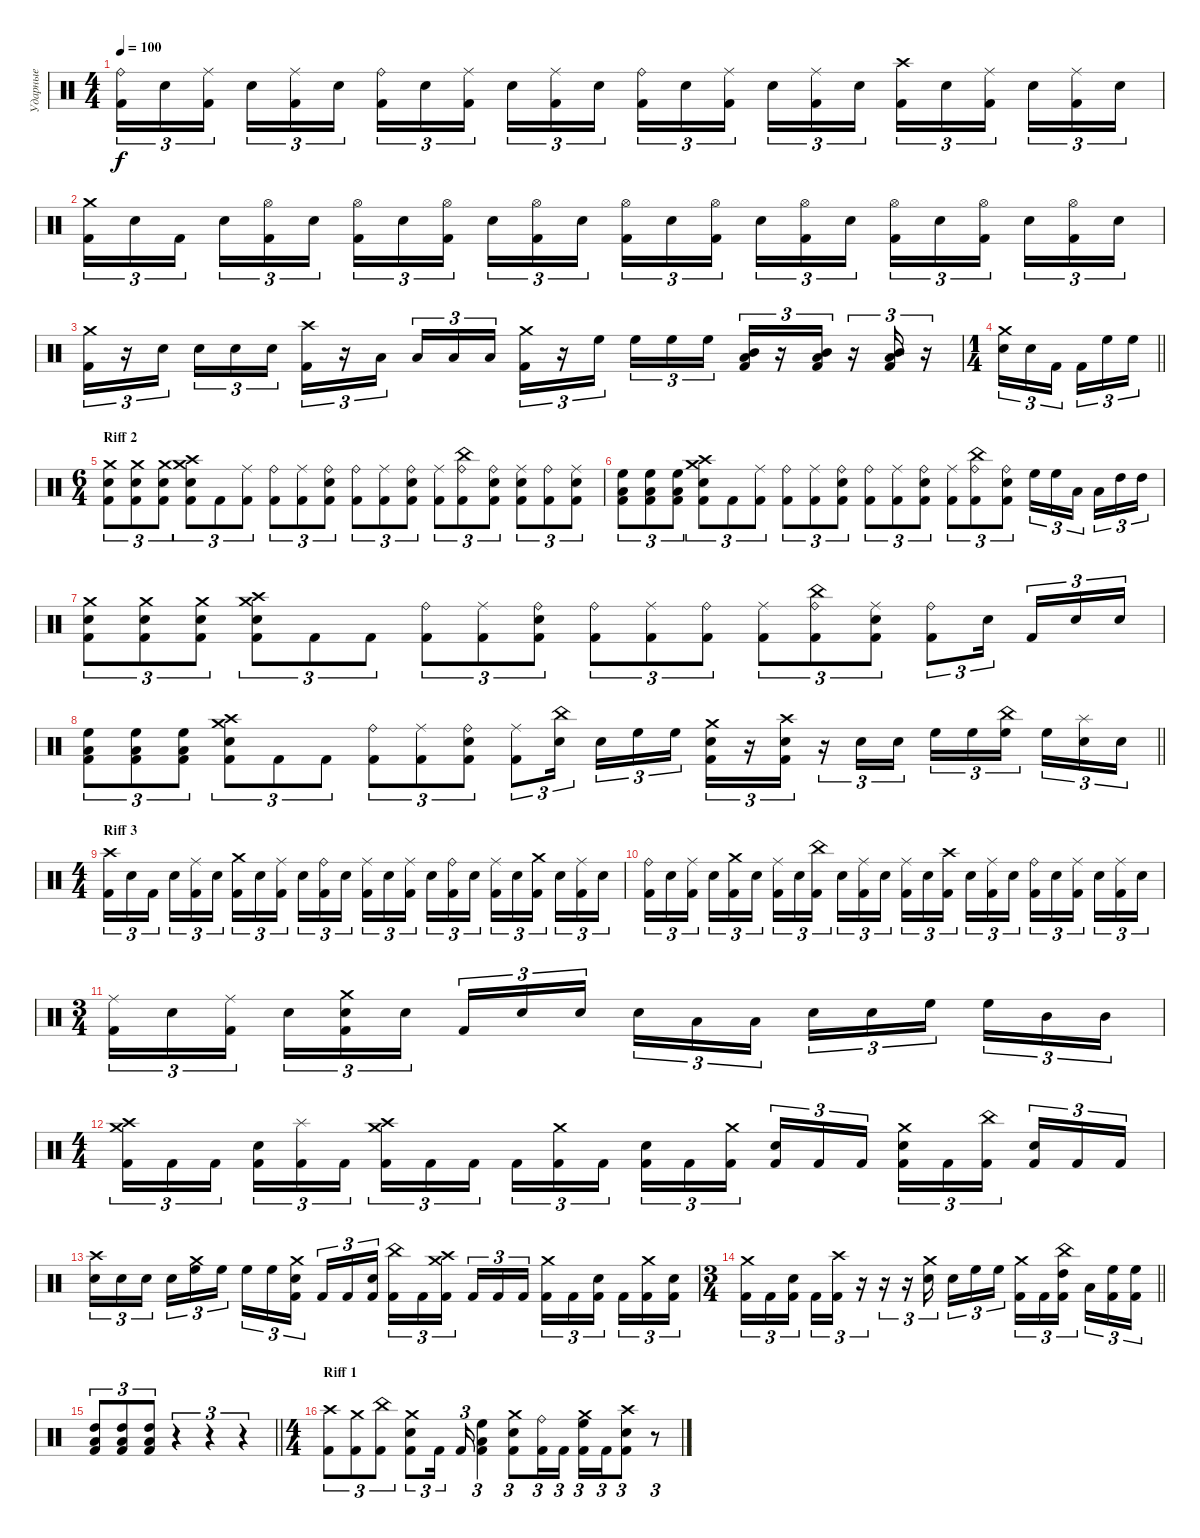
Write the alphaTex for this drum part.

\track ("Ударные" "Ударные") {instrument percussion}
\staff {score}
\articulation defaults
\ts (4 4)
\tempo 100
\clef neutral
\ks c
("Ride (bell)" "Kick (hit) 2").16{tu (3 2) dy f} "Electric Snare (hit)".16{tu (3 2)} ("Ride (middle)" "Kick (hit) 2").16{tu (3 2) beam splitsecondary} "Electric Snare (hit)".16{tu (3 2)} ("Ride (middle)" "Kick (hit) 2").16{tu (3 2)} "Electric Snare (hit)".16{tu (3 2)} ("Ride (bell)" "Kick (hit) 2").16{tu (3 2)} "Electric Snare (hit)".16{tu (3 2)} ("Ride (middle)" "Kick (hit) 2").16{tu (3 2) beam splitsecondary} "Electric Snare (hit)".16{tu (3 2)} ("Ride (middle)" "Kick (hit) 2").16{tu (3 2)} "Electric Snare (hit)".16{tu (3 2)} ("Ride (bell)" "Kick (hit) 2").16{tu (3 2)} "Electric Snare (hit)".16{tu (3 2)} ("Ride (middle)" "Kick (hit) 2").16{tu (3 2) beam splitsecondary} "Electric Snare (hit)".16{tu (3 2)} ("Ride (middle)" "Kick (hit) 2").16{tu (3 2)} "Electric Snare (hit)".16{tu (3 2)} ("Crash high (hit)" "Kick (hit) 2").16{tu (3 2)} "Electric Snare (hit)".16{tu (3 2)} ("Ride (middle)" "Kick (hit) 2").16{tu (3 2) beam splitsecondary} "Electric Snare (hit)".16{tu (3 2)} ("Ride (middle)" "Kick (hit) 2").16{tu (3 2)} "Electric Snare (hit)".16{tu (3 2)} |
("Crash medium (hit)" "Kick (hit) 2").16{tu (3 2)} "Electric Snare (hit)".16{tu (3 2)} "Kick (hit) 2".16{tu (3 2) beam splitsecondary} "Electric Snare (hit)".16{tu (3 2)} ("Hi-Hat (open)" "Kick (hit) 2").16{tu (3 2)} "Electric Snare (hit)".16{tu (3 2)} ("Hi-Hat (open)" "Kick (hit) 2").16{tu (3 2)} "Electric Snare (hit)".16{tu (3 2)} ("Hi-Hat (open)" "Kick (hit) 2").16{tu (3 2) beam splitsecondary} "Electric Snare (hit)".16{tu (3 2)} ("Hi-Hat (open)" "Kick (hit) 2").16{tu (3 2)} "Electric Snare (hit)".16{tu (3 2)} ("Hi-Hat (open)" "Kick (hit) 2").16{tu (3 2)} "Electric Snare (hit)".16{tu (3 2)} ("Hi-Hat (open)" "Kick (hit) 2").16{tu (3 2) beam splitsecondary} "Electric Snare (hit)".16{tu (3 2)} ("Hi-Hat (open)" "Kick (hit) 2").16{tu (3 2)} "Electric Snare (hit)".16{tu (3 2)} ("Hi-Hat (open)" "Kick (hit) 2").16{tu (3 2)} "Electric Snare (hit)".16{tu (3 2)} ("Hi-Hat (open)" "Kick (hit) 2").16{tu (3 2) beam splitsecondary} "Electric Snare (hit)".16{tu (3 2)} ("Hi-Hat (open)" "Kick (hit) 2").16{tu (3 2)} "Electric Snare (hit)".16{tu (3 2)} |
("Crash medium (hit)" "Kick (hit) 2").16{tu (3 2)} r.16{tu (3 2)} "Electric Snare (hit)".16{tu (3 2) beam splitsecondary} "Electric Snare (hit)".16{tu (3 2)} "Electric Snare (hit)".16{tu (3 2)} "Electric Snare (hit)".16{tu (3 2)} ("Crash high (hit)" "Kick (hit) 2").16{tu (3 2)} r.16{tu (3 2)} "Low Tom (hit)".16{tu (3 2) beam splitsecondary} "Low Tom (hit)".16{tu (3 2)} "Low Tom (hit)".16{tu (3 2)} "Low Tom (hit)".16{tu (3 2)} ("Crash medium (hit)" "Kick (hit) 2").16{tu (3 2)} r.16{tu (3 2)} "High Floor Tom (hit)".16{tu (3 2) beam splitsecondary} "High Floor Tom (hit)".16{tu (3 2)} "High Floor Tom (hit)".16{tu (3 2)} "High Floor Tom (hit)".16{tu (3 2)} ("Mid Tom (hit)" "Low Tom (hit)" "Kick (hit) 2").16{tu (3 2)} r.16{tu (3 2)} ("Mid Tom (hit)" "Low Tom (hit)" "Kick (hit) 2").16{tu (3 2)} r.16{tu (3 2)} ("Mid Tom (hit)" "Low Tom (hit)" "Kick (hit) 2").16{tu (3 2)} r.16{tu (3 2)} |
\ts (1 4)
\barLineRight lightlight
("Crash medium (hit)" "Electric Snare (hit)").16{tu (3 2)} "Electric Snare (hit)".16{tu (3 2)} "Kick (hit) 2".16{tu (3 2) beam splitsecondary} "Kick (hit) 2".16{tu (3 2)} "High Floor Tom (hit)".16{tu (3 2)} "High Floor Tom (hit)".16{tu (3 2)} |
\ts (6 4)
\section ("" "Riff 2")
("Crash medium (hit)" "Electric Snare (hit)" "Kick (hit) 2").8{tu (3 2)} ("Crash medium (hit)" "Electric Snare (hit)" "Kick (hit) 2").8{tu (3 2)} ("Crash medium (hit)" "Electric Snare (hit)" "Kick (hit) 2").8{tu (3 2)} ("Crash high (hit)" "Crash medium (hit)" "Electric Snare (hit)" "Kick (hit) 2").8{tu (3 2)} "Kick (hit) 2".8{tu (3 2)} ("Ride (middle)" "Kick (hit) 2").8{tu (3 2)} ("Ride (bell)" "Kick (hit) 2").8{tu (3 2)} ("Ride (middle)" "Kick (hit) 2").8{tu (3 2)} ("Ride (bell)" "Electric Snare (hit)" "Kick (hit) 2").8{tu (3 2)} ("Ride (bell)" "Kick (hit) 2").8{tu (3 2)} ("Ride (middle)" "Kick (hit) 2").8{tu (3 2)} ("Ride (bell)" "Electric Snare (hit)" "Kick (hit) 2").8{tu (3 2)} ("Ride (middle)" "Kick (hit) 2").8{tu (3 2)} ("China (hit)" "Ride (bell)" "Kick (hit) 2").8{tu (3 2)} ("Ride (bell)" "Electric Snare (hit)" "Kick (hit) 2").8{tu (3 2)} ("Ride (middle)" "Electric Snare (hit)" "Kick (hit) 2").8{tu (3 2)} ("Ride (bell)" "Kick (hit) 2").8{tu (3 2)} ("Ride (middle)" "Electric Snare (hit)" "Kick (hit) 2").8{tu (3 2)} |
("Low Tom (hit)" "High Floor Tom (hit)" "Kick (hit) 2").8{tu (3 2)} ("Low Tom (hit)" "High Floor Tom (hit)" "Kick (hit) 2").8{tu (3 2)} ("Low Tom (hit)" "High Floor Tom (hit)" "Kick (hit) 2").8{tu (3 2)} ("Crash high (hit)" "Crash medium (hit)" "Electric Snare (hit)" "Kick (hit) 2").8{tu (3 2)} "Kick (hit) 2".8{tu (3 2)} ("Ride (middle)" "Kick (hit) 2").8{tu (3 2)} ("Ride (bell)" "Kick (hit) 2").8{tu (3 2)} ("Ride (middle)" "Kick (hit) 2").8{tu (3 2)} ("Ride (bell)" "Electric Snare (hit)" "Kick (hit) 2").8{tu (3 2)} ("Ride (bell)" "Kick (hit) 2").8{tu (3 2)} ("Ride (middle)" "Kick (hit) 2").8{tu (3 2)} ("Ride (bell)" "Electric Snare (hit)" "Kick (hit) 2").8{tu (3 2)} ("Ride (middle)" "Kick (hit) 2").8{tu (3 2)} ("China (hit)" "Ride (bell)" "Kick (hit) 2").8{tu (3 2)} ("Ride (bell)" "Electric Snare (hit)" "Kick (hit) 2").8{tu (3 2)} "High Floor Tom (hit)".16{tu (3 2)} "High Floor Tom (hit)".16{tu (3 2)} "Low Tom (hit)".16{tu (3 2) beam splitsecondary} "Low Tom (hit)".16{tu (3 2)} "High Tom (hit)".16{tu (3 2)} "High Tom (hit)".16{tu (3 2)} |
("Crash medium (hit)" "Electric Snare (hit)" "Kick (hit) 2").8{tu (3 2)} ("Crash medium (hit)" "Electric Snare (hit)" "Kick (hit) 2").8{tu (3 2)} ("Crash medium (hit)" "Electric Snare (hit)" "Kick (hit) 2").8{tu (3 2)} ("Crash high (hit)" "Crash medium (hit)" "Electric Snare (hit)" "Kick (hit) 2").8{tu (3 2)} "Kick (hit) 2".8{tu (3 2)} "Kick (hit) 2".8{tu (3 2)} ("Ride (bell)" "Kick (hit) 2").8{tu (3 2)} ("Ride (middle)" "Kick (hit) 2").8{tu (3 2)} ("Ride (bell)" "Electric Snare (hit)" "Kick (hit) 2").8{tu (3 2)} ("Ride (bell)" "Kick (hit) 2").8{tu (3 2)} ("Ride (middle)" "Kick (hit) 2").8{tu (3 2)} ("Ride (bell)" "Kick (hit) 2").8{tu (3 2)} ("Ride (middle)" "Kick (hit) 2").8{tu (3 2)} ("China (hit)" "Ride (bell)" "Kick (hit) 2").8{tu (3 2)} ("Ride (middle)" "Electric Snare (hit)" "Kick (hit) 2").8{tu (3 2)} ("Ride (bell)" "Kick (hit) 2").8{tu (3 2)} "Electric Snare (hit)".16{tu (3 2) beam splitsecondary} "Kick (hit) 2".16{tu (3 2)} "Electric Snare (hit)".16{tu (3 2)} "Electric Snare (hit)".16{tu (3 2)} |
\barLineRight lightlight
("Low Tom (hit)" "High Floor Tom (hit)" "Kick (hit) 2").8{tu (3 2)} ("Low Tom (hit)" "High Floor Tom (hit)" "Kick (hit) 2").8{tu (3 2)} ("Low Tom (hit)" "High Floor Tom (hit)" "Kick (hit) 2").8{tu (3 2)} ("Crash high (hit)" "Crash medium (hit)" "Electric Snare (hit)" "Kick (hit) 2").8{tu (3 2)} "Kick (hit) 2".8{tu (3 2)} "Kick (hit) 2".8{tu (3 2)} ("Ride (bell)" "Kick (hit) 2").8{tu (3 2)} ("Ride (middle)" "Kick (hit) 2").8{tu (3 2)} ("Ride (bell)" "Electric Snare (hit)" "Kick (hit) 2").8{tu (3 2)} ("Ride (middle)" "Kick (hit) 2").8{tu (3 2)} ("China (hit)" "Electric Snare (hit)").16{tu (3 2) beam splitsecondary} "Electric Snare (hit)".16{tu (3 2)} "High Floor Tom (hit)".16{tu (3 2)} "High Floor Tom (hit)".16{tu (3 2) beam splitsecondary} ("Crash medium (hit)" "Electric Snare (hit)" "Kick (hit) 2").16{tu (3 2)} r.16{tu (3 2)} ("Crash high (hit)" "Electric Snare (hit)" "Kick (hit) 2").16{tu (3 2)} r.16{tu (3 2)} "Electric Snare (hit)".16{tu (3 2)} "Electric Snare (hit)".16{tu (3 2) beam splitsecondary} "High Floor Tom (hit)".16{tu (3 2)} "High Floor Tom (hit)".16{tu (3 2)} ("China (hit)" "High Floor Tom (hit)").16{tu (3 2) beam splitsecondary} "High Floor Tom (hit)".16{tu (3 2)} ("Splash (hit)" "Electric Snare (hit)").16{tu (3 2)} "Electric Snare (hit)".16{tu (3 2)} |
\ts (4 4)
\section ("" "Riff 3")
("Crash high (hit)" "Kick (hit) 2").16{tu (3 2)} "Electric Snare (hit)".16{tu (3 2)} "Kick (hit) 2".16{tu (3 2) beam splitsecondary} "Electric Snare (hit)".16{tu (3 2)} ("Ride (middle)" "Kick (hit) 2").16{tu (3 2)} "Electric Snare (hit)".16{tu (3 2)} ("Crash medium (hit)" "Kick (hit) 2").16{tu (3 2)} "Electric Snare (hit)".16{tu (3 2)} ("Ride (middle)" "Kick (hit) 2").16{tu (3 2) beam splitsecondary} "Electric Snare (hit)".16{tu (3 2)} ("Ride (bell)" "Kick (hit) 2").16{tu (3 2)} "Electric Snare (hit)".16{tu (3 2)} ("Ride (middle)" "Kick (hit) 2").16{tu (3 2)} "Electric Snare (hit)".16{tu (3 2)} ("Ride (middle)" "Kick (hit) 2").16{tu (3 2) beam splitsecondary} "Electric Snare (hit)".16{tu (3 2)} ("Ride (bell)" "Kick (hit) 2").16{tu (3 2)} "Electric Snare (hit)".16{tu (3 2)} ("Ride (middle)" "Kick (hit) 2").16{tu (3 2)} "Electric Snare (hit)".16{tu (3 2)} ("Crash medium (hit)" "Kick (hit) 2").16{tu (3 2) beam splitsecondary} "Electric Snare (hit)".16{tu (3 2)} ("Ride (middle)" "Kick (hit) 2").16{tu (3 2)} "Electric Snare (hit)".16{tu (3 2)} |
("Ride (bell)" "Kick (hit) 2").16{tu (3 2)} "Electric Snare (hit)".16{tu (3 2)} ("Ride (middle)" "Kick (hit) 2").16{tu (3 2) beam splitsecondary} "Electric Snare (hit)".16{tu (3 2)} ("Crash medium (hit)" "Kick (hit) 2").16{tu (3 2)} "Electric Snare (hit)".16{tu (3 2)} ("Ride (middle)" "Kick (hit) 2").16{tu (3 2)} "Electric Snare (hit)".16{tu (3 2)} ("China (hit)" "Kick (hit) 2").16{tu (3 2) beam splitsecondary} "Electric Snare (hit)".16{tu (3 2)} ("Ride (middle)" "Kick (hit) 2").16{tu (3 2)} "Electric Snare (hit)".16{tu (3 2)} ("Ride (middle)" "Kick (hit) 2").16{tu (3 2)} "Electric Snare (hit)".16{tu (3 2)} ("Crash high (hit)" "Kick (hit) 2").16{tu (3 2) beam splitsecondary} "Electric Snare (hit)".16{tu (3 2)} ("Ride (middle)" "Kick (hit) 2").16{tu (3 2)} "Electric Snare (hit)".16{tu (3 2)} ("Ride (bell)" "Kick (hit) 2").16{tu (3 2)} "Electric Snare (hit)".16{tu (3 2)} ("Ride (middle)" "Kick (hit) 2").16{tu (3 2) beam splitsecondary} "Electric Snare (hit)".16{tu (3 2)} ("Ride (middle)" "Kick (hit) 2").16{tu (3 2)} "Electric Snare (hit)".16{tu (3 2)} |
\ts (3 4)
("Ride (middle)" "Kick (hit) 2").16{tu (3 2)} "Electric Snare (hit)".16{tu (3 2)} ("Ride (middle)" "Kick (hit) 2").16{tu (3 2) beam splitsecondary} "Electric Snare (hit)".16{tu (3 2)} ("Crash medium (hit)" "Electric Snare (hit)" "Kick (hit) 2").16{tu (3 2)} "Electric Snare (hit)".16{tu (3 2)} "Kick (hit) 2".16{tu (3 2)} "Electric Snare (hit)".16{tu (3 2)} "Electric Snare (hit)".16{tu (3 2) beam splitsecondary} "Electric Snare (hit)".16{tu (3 2)} "Low Tom (hit)".16{tu (3 2)} "Low Tom (hit)".16{tu (3 2)} "Electric Snare (hit)".16{tu (3 2)} "Electric Snare (hit)".16{tu (3 2)} "High Floor Tom (hit)".16{tu (3 2) beam splitsecondary} "High Floor Tom (hit)".16{tu (3 2)} "Mid Tom (hit)".16{tu (3 2)} "Mid Tom (hit)".16{tu (3 2)} |
\ts (4 4)
("Crash medium (hit)" "Crash high (hit)" "Kick (hit) 2").16{tu (3 2)} "Kick (hit) 2".16{tu (3 2)} "Kick (hit) 2".16{tu (3 2) beam splitsecondary} ("Electric Snare (hit)" "Kick (hit) 2").16{tu (3 2)} ("Splash (hit)" "Kick (hit) 2").16{tu (3 2)} "Kick (hit) 2".16{tu (3 2)} ("Crash medium (hit)" "Crash high (hit)" "Kick (hit) 2").16{tu (3 2)} "Kick (hit) 2".16{tu (3 2)} "Kick (hit) 2".16{tu (3 2) beam splitsecondary} "Kick (hit) 2".16{tu (3 2)} ("Crash medium (hit)" "Kick (hit) 2").16{tu (3 2)} "Kick (hit) 2".16{tu (3 2)} ("Electric Snare (hit)" "Kick (hit) 2").16{tu (3 2)} "Kick (hit) 2".16{tu (3 2)} ("Crash medium (hit)" "Kick (hit) 2").16{tu (3 2) beam splitsecondary} ("Electric Snare (hit)" "Kick (hit) 2").16{tu (3 2)} "Kick (hit) 2".16{tu (3 2)} "Kick (hit) 2".16{tu (3 2)} ("Crash medium (hit)" "Electric Snare (hit)" "Kick (hit) 2").16{tu (3 2)} "Kick (hit) 2".16{tu (3 2)} ("China (hit)" "Kick (hit) 2").16{tu (3 2) beam splitsecondary} ("Electric Snare (hit)" "Kick (hit) 2").16{tu (3 2)} "Kick (hit) 2".16{tu (3 2)} "Kick (hit) 2".16{tu (3 2)} |
("Crash high (hit)" "Electric Snare (hit)").16{tu (3 2)} "Electric Snare (hit)".16{tu (3 2)} "Electric Snare (hit)".16{tu (3 2) beam splitsecondary} "Electric Snare (hit)".16{tu (3 2)} ("Crash medium (hit)" "High Floor Tom (hit)").16{tu (3 2)} "High Floor Tom (hit)".16{tu (3 2)} "High Floor Tom (hit)".16{tu (3 2)} "High Floor Tom (hit)".16{tu (3 2)} ("Crash medium (hit)" "Electric Snare (hit)" "Kick (hit) 2").16{tu (3 2) beam splitsecondary} "Kick (hit) 2".16{tu (3 2)} "Kick (hit) 2".16{tu (3 2)} ("Electric Snare (hit)" "Kick (hit) 2").16{tu (3 2)} ("China (hit)" "Kick (hit) 2").16{tu (3 2)} "Kick (hit) 2".16{tu (3 2)} ("Crash medium (hit)" "Crash high (hit)" "Kick (hit) 2").16{tu (3 2) beam splitsecondary} "Kick (hit) 2".16{tu (3 2)} "Kick (hit) 2".16{tu (3 2)} "Kick (hit) 2".16{tu (3 2)} ("Crash medium (hit)" "Kick (hit) 2").16{tu (3 2)} "Kick (hit) 2".16{tu (3 2)} ("Electric Snare (hit)" "Kick (hit) 2").16{tu (3 2) beam splitsecondary} "Kick (hit) 2".16{tu (3 2)} ("Crash medium (hit)" "Kick (hit) 2").16{tu (3 2)} ("Electric Snare (hit)" "Kick (hit) 2").16{tu (3 2)} |
\ts (3 4)
\barLineRight lightlight
("Crash medium (hit)" "Kick (hit) 2").16{tu (3 2)} "Kick (hit) 2".16{tu (3 2)} ("Electric Snare (hit)" "Kick (hit) 2").16{tu (3 2) beam splitsecondary} "Kick (hit) 2".16{tu (3 2)} ("Crash high (hit)" "Kick (hit) 2").16{tu (3 2)} r.16{tu (3 2)} r.16{tu (3 2)} r.16{tu (3 2)} ("Crash medium (hit)" "Electric Snare (hit)").16{tu (3 2) beam splitsecondary} "Electric Snare (hit)".16{tu (3 2)} "High Floor Tom (hit)".16{tu (3 2)} "High Floor Tom (hit)".16{tu (3 2)} ("Crash medium (hit)" "Kick (hit) 2").16{tu (3 2)} "Kick (hit) 2".16{tu (3 2)} ("China (hit)" "High Tom (hit)" "Kick (hit) 2").16{tu (3 2) beam splitsecondary} "Low Tom (hit)".16{tu (3 2)} ("High Floor Tom (hit)" "Kick (hit) 2").16{tu (3 2)} ("High Floor Tom (hit)" "Kick (hit) 2").16{tu (3 2)} |
\barLineRight lightlight
("High Tom (hit)" "Low Tom (hit)" "Kick (hit) 2").8{tu (3 2)} ("High Tom (hit)" "Low Tom (hit)" "Kick (hit) 2").8{tu (3 2)} ("High Tom (hit)" "Low Tom (hit)" "Kick (hit) 2").8{tu (3 2)} r.4{tu (3 2)} r.4{tu (3 2)} r.4{tu (3 2)} |
\ts (4 4)
\section ("" "Riff 1")
("Crash high (hit)" "Kick (hit) 2").8{tu (3 2)} ("Crash medium (hit)" "Kick (hit) 2").8{tu (3 2)} ("China (hit)" "Kick (hit) 2").8{tu (3 2)} ("Crash medium (hit)" "Electric Snare (hit)" "Kick (hit) 2").8{tu (3 2)} "Kick (hit) 2".16{tu (3 2)} "Kick (hit) 2".16{tu (3 2)} ("High Floor Tom (hit)" "Low Tom (hit)" "Kick (hit) 2").4{tu (3 2)} ("Crash medium (hit)" "Electric Snare (hit)" "Kick (hit) 2").8{tu (3 2)} ("Ride (bell)" "Kick (hit) 2").16{tu (3 2)} "Kick (hit) 2".16{tu (3 2)} ("Crash medium (hit)" "High Floor Tom (hit)" "Kick (hit) 2").16{tu (3 2)} "Kick (hit) 2".16{tu (3 2)} ("Crash high (hit)" "Electric Snare (hit)" "Kick (hit) 2").8{tu (3 2)} r.8{tu (3 2)}
